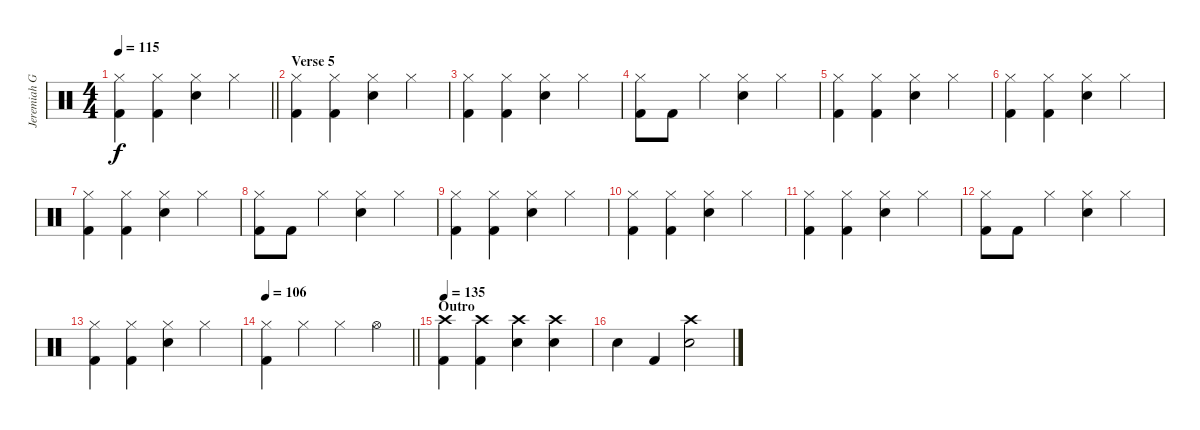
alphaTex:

\track ("Jeremiah Green" "Jeremiah G") {instrument percussion}
\staff {score}
\articulation defaults
\ts (4 4)
\tempo 115
\clef neutral
\barLineRight lightlight
\ks c
("Hi-Hat (closed)" "Kick (hit) 2").4{dy f} ("Hi-Hat (closed)" "Kick (hit) 2").4 ("Hi-Hat (closed)" "Electric Snare (hit)").4 "Hi-Hat (closed)".4 |
\section ("" "Verse 5")
("Hi-Hat (closed)" "Kick (hit) 2").4 ("Hi-Hat (closed)" "Kick (hit) 2").4 ("Hi-Hat (closed)" "Electric Snare (hit)").4 "Hi-Hat (closed)".4 |
("Hi-Hat (closed)" "Kick (hit) 2").4 ("Hi-Hat (closed)" "Kick (hit) 2").4 ("Hi-Hat (closed)" "Electric Snare (hit)").4 "Hi-Hat (closed)".4 |
("Hi-Hat (closed)" "Kick (hit) 2").8 "Kick (hit) 2".8 "Hi-Hat (closed)".4 ("Hi-Hat (closed)" "Electric Snare (hit)").4 "Hi-Hat (closed)".4 |
("Hi-Hat (closed)" "Kick (hit) 2").4 ("Hi-Hat (closed)" "Kick (hit) 2").4 ("Hi-Hat (closed)" "Electric Snare (hit)").4 "Hi-Hat (closed)".4 |
("Hi-Hat (closed)" "Kick (hit) 2").4 ("Hi-Hat (closed)" "Kick (hit) 2").4 ("Hi-Hat (closed)" "Electric Snare (hit)").4 "Hi-Hat (closed)".4 |
("Hi-Hat (closed)" "Kick (hit) 2").4 ("Hi-Hat (closed)" "Kick (hit) 2").4 ("Hi-Hat (closed)" "Electric Snare (hit)").4 "Hi-Hat (closed)".4 |
("Hi-Hat (closed)" "Kick (hit) 2").8 "Kick (hit) 2".8 "Hi-Hat (closed)".4 ("Hi-Hat (closed)" "Electric Snare (hit)").4 "Hi-Hat (closed)".4 |
("Hi-Hat (closed)" "Kick (hit) 2").4 ("Hi-Hat (closed)" "Kick (hit) 2").4 ("Hi-Hat (closed)" "Electric Snare (hit)").4 "Hi-Hat (closed)".4 |
("Hi-Hat (closed)" "Kick (hit) 2").4 ("Hi-Hat (closed)" "Kick (hit) 2").4 ("Hi-Hat (closed)" "Electric Snare (hit)").4 "Hi-Hat (closed)".4 |
("Hi-Hat (closed)" "Kick (hit) 2").4 ("Hi-Hat (closed)" "Kick (hit) 2").4 ("Hi-Hat (closed)" "Electric Snare (hit)").4 "Hi-Hat (closed)".4 |
("Hi-Hat (closed)" "Kick (hit) 2").8 "Kick (hit) 2".8 "Hi-Hat (closed)".4 ("Hi-Hat (closed)" "Electric Snare (hit)").4 "Hi-Hat (closed)".4 |
("Hi-Hat (closed)" "Kick (hit) 2").4 ("Hi-Hat (closed)" "Kick (hit) 2").4 ("Hi-Hat (closed)" "Electric Snare (hit)").4 "Hi-Hat (closed)".4 |
\tempo 106
\barLineRight lightlight
("Hi-Hat (closed)" "Kick (hit) 2").4 "Hi-Hat (closed)".4 "Hi-Hat (closed)".4 "Hi-Hat (open)".4 |
\section ("" "Outro")
\tempo 135
("Crash high (hit)" "Kick (hit) 2").4 ("Crash high (hit)" "Kick (hit) 2").4 ("Crash high (hit)" "Electric Snare (hit)").4 ("Crash high (hit)" "Electric Snare (hit)").4 |
"Electric Snare (hit)".4 "Kick (hit) 2".4 ("Crash high (hit)" "Electric Snare (hit)").2
